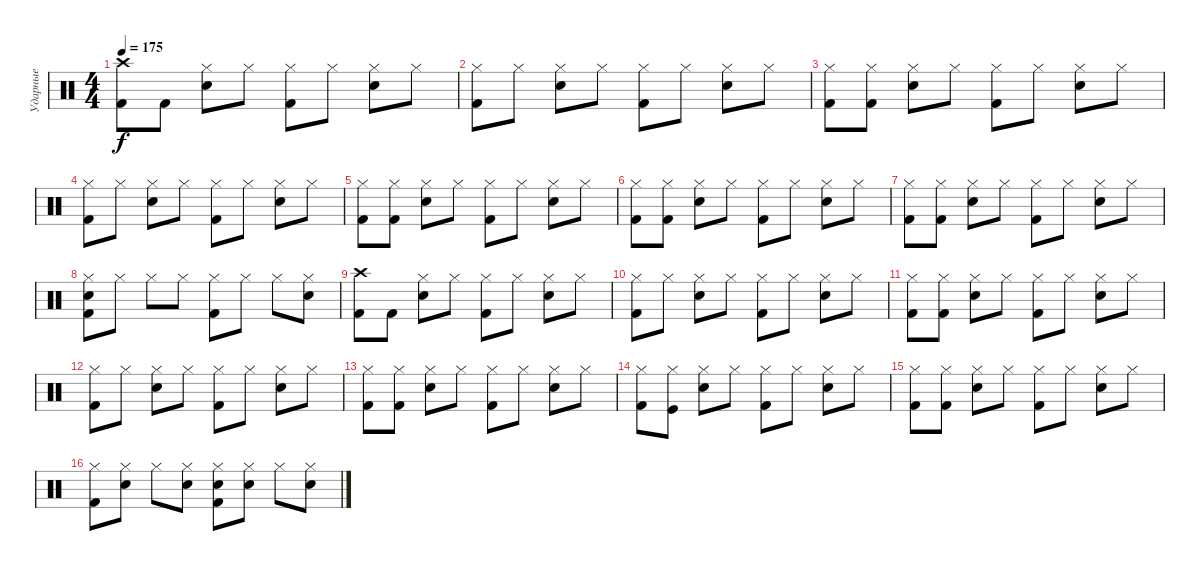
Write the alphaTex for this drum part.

\track ("Ударные" "Ударные") {instrument percussion}
\staff
\articulation defaults
\ts (4 4)
\tempo 175
\clef neutral
\ks c
("Kick (hit) 2" "Crash high (hit)").8{dy f} "Kick (hit) 2".8 ("Snare (hit) 2" "Hi-Hat (closed)").8 "Hi-Hat (closed)".8 ("Kick (hit) 2" "Hi-Hat (closed)").8 "Hi-Hat (closed)".8 ("Snare (hit) 2" "Hi-Hat (closed)").8 "Hi-Hat (closed)".8 |
("Kick (hit) 2" "Hi-Hat (closed)").8 "Hi-Hat (closed)".8 ("Snare (hit) 2" "Hi-Hat (closed)").8 "Hi-Hat (closed)".8 ("Kick (hit) 2" "Hi-Hat (closed)").8 "Hi-Hat (closed)".8 ("Snare (hit) 2" "Hi-Hat (closed)").8 "Hi-Hat (closed)".8 |
("Kick (hit) 2" "Hi-Hat (closed)").8 ("Kick (hit) 2" "Hi-Hat (closed)").8 ("Snare (hit) 2" "Hi-Hat (closed)").8 "Hi-Hat (closed)".8 ("Kick (hit) 2" "Hi-Hat (closed)").8 "Hi-Hat (closed)".8 ("Snare (hit) 2" "Hi-Hat (closed)").8 "Hi-Hat (closed)".8 |
("Kick (hit) 2" "Hi-Hat (closed)").8 "Hi-Hat (closed)".8 ("Snare (hit) 2" "Hi-Hat (closed)").8 "Hi-Hat (closed)".8 ("Kick (hit) 2" "Hi-Hat (closed)").8 "Hi-Hat (closed)".8 ("Snare (hit) 2" "Hi-Hat (closed)").8 "Hi-Hat (closed)".8 |
("Kick (hit) 2" "Hi-Hat (closed)").8 ("Kick (hit) 2" "Hi-Hat (closed)").8 ("Snare (hit) 2" "Hi-Hat (closed)").8 "Hi-Hat (closed)".8 ("Kick (hit) 2" "Hi-Hat (closed)").8 "Hi-Hat (closed)".8 ("Snare (hit) 2" "Hi-Hat (closed)").8 "Hi-Hat (closed)".8 |
("Kick (hit) 2" "Hi-Hat (closed)").8 ("Kick (hit) 2" "Hi-Hat (closed)").8 ("Snare (hit) 2" "Hi-Hat (closed)").8 "Hi-Hat (closed)".8 ("Kick (hit) 2" "Hi-Hat (closed)").8 "Hi-Hat (closed)".8 ("Snare (hit) 2" "Hi-Hat (closed)").8 "Hi-Hat (closed)".8 |
("Kick (hit) 2" "Hi-Hat (closed)").8 ("Kick (hit) 2" "Hi-Hat (closed)").8 ("Snare (hit) 2" "Hi-Hat (closed)").8 "Hi-Hat (closed)".8 ("Kick (hit) 2" "Hi-Hat (closed)").8 "Hi-Hat (closed)".8 ("Snare (hit) 2" "Hi-Hat (closed)").8 "Hi-Hat (closed)".8 |
("Kick (hit) 2" "Electric Snare (hit)" "Hi-Hat (closed)").8 "Hi-Hat (closed)".8 "Hi-Hat (closed)".8 "Hi-Hat (closed)".8 ("Kick (hit) 2" "Hi-Hat (closed)").8 "Hi-Hat (closed)".8 "Hi-Hat (closed)".8 ("Electric Snare (hit)" "Hi-Hat (closed)").8 |
("Kick (hit) 2" "Crash high (hit)").8 "Kick (hit) 2".8 ("Snare (hit) 2" "Hi-Hat (closed)").8 "Hi-Hat (closed)".8 ("Kick (hit) 2" "Hi-Hat (closed)").8 "Hi-Hat (closed)".8 ("Snare (hit) 2" "Hi-Hat (closed)").8 "Hi-Hat (closed)".8 |
("Kick (hit) 2" "Hi-Hat (closed)").8 "Hi-Hat (closed)".8 ("Snare (hit) 2" "Hi-Hat (closed)").8 "Hi-Hat (closed)".8 ("Kick (hit) 2" "Hi-Hat (closed)").8 "Hi-Hat (closed)".8 ("Snare (hit) 2" "Hi-Hat (closed)").8 "Hi-Hat (closed)".8 |
("Kick (hit) 2" "Hi-Hat (closed)").8 ("Kick (hit) 2" "Hi-Hat (closed)").8 ("Snare (hit) 2" "Hi-Hat (closed)").8 "Hi-Hat (closed)".8 ("Kick (hit) 2" "Hi-Hat (closed)").8 "Hi-Hat (closed)".8 ("Snare (hit) 2" "Hi-Hat (closed)").8 "Hi-Hat (closed)".8 |
("Kick (hit) 2" "Hi-Hat (closed)").8 "Hi-Hat (closed)".8 ("Snare (hit) 2" "Hi-Hat (closed)").8 "Hi-Hat (closed)".8 ("Kick (hit) 2" "Hi-Hat (closed)").8 "Hi-Hat (closed)".8 ("Snare (hit) 2" "Hi-Hat (closed)").8 "Hi-Hat (closed)".8 |
("Kick (hit) 2" "Hi-Hat (closed)").8 ("Kick (hit) 2" "Hi-Hat (closed)").8 ("Snare (hit) 2" "Hi-Hat (closed)").8 "Hi-Hat (closed)".8 ("Kick (hit) 2" "Hi-Hat (closed)").8 "Hi-Hat (closed)".8 ("Snare (hit) 2" "Hi-Hat (closed)").8 "Hi-Hat (closed)".8 |
("Kick (hit) 2" "Hi-Hat (closed)").8 ("Kick (hit)" "Hi-Hat (closed)").8 ("Snare (hit) 2" "Hi-Hat (closed)").8 "Hi-Hat (closed)".8 ("Kick (hit) 2" "Hi-Hat (closed)").8 "Hi-Hat (closed)".8 ("Snare (hit) 2" "Hi-Hat (closed)").8 "Hi-Hat (closed)".8 |
("Kick (hit) 2" "Hi-Hat (closed)").8 ("Kick (hit) 2" "Hi-Hat (closed)").8 ("Snare (hit) 2" "Hi-Hat (closed)").8 "Hi-Hat (closed)".8 ("Kick (hit) 2" "Hi-Hat (closed)").8 "Hi-Hat (closed)".8 ("Snare (hit) 2" "Hi-Hat (closed)").8 "Hi-Hat (closed)".8 |
("Kick (hit) 2" "Hi-Hat (closed)").8 ("Snare (hit) 2" "Hi-Hat (closed)").8 "Hi-Hat (closed)".8 ("Electric Snare (hit)" "Hi-Hat (closed)").8 ("Kick (hit) 2" "Electric Snare (hit)" "Hi-Hat (closed)").8 ("Electric Snare (hit)" "Hi-Hat (closed)").8 "Hi-Hat (closed)".8 ("Electric Snare (hit)" "Hi-Hat (closed)").8
